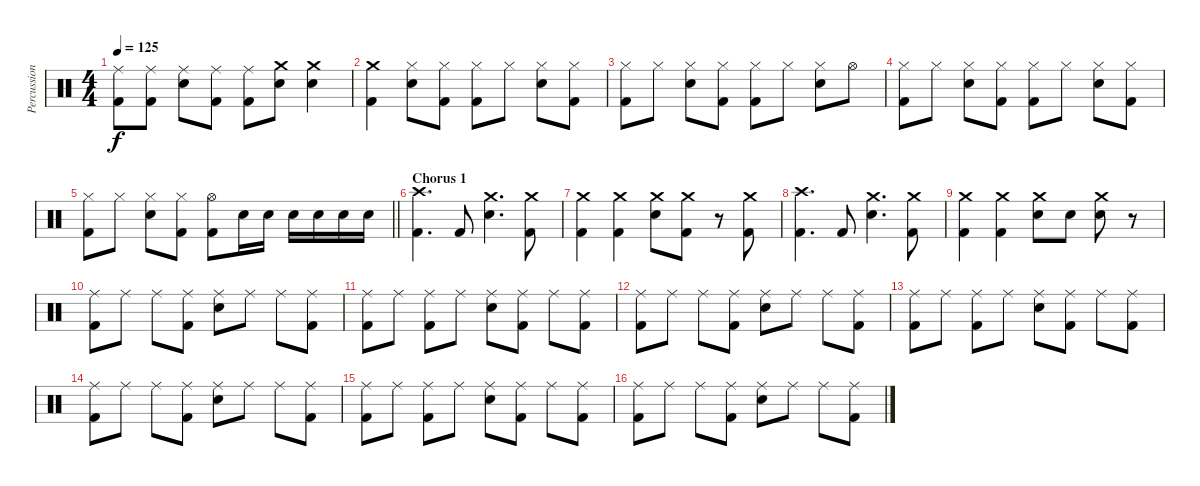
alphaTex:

\track ("Percussion" "Percussion") {instrument percussion}
\staff {score}
\articulation defaults
\ts (4 4)
\tempo 125
\clef neutral
\ks c
("Ride (middle)" "Kick (hit) 2").8{dy f} ("Ride (middle)" "Kick (hit) 2").8 ("Ride (middle)" "Electric Snare (hit)").8 ("Ride (middle)" "Kick (hit) 2").8 ("Ride (middle)" "Kick (hit) 2").8 ("Crash medium (hit)" "Electric Snare (hit)").8 ("Crash medium (hit)" "Electric Snare (hit)").4 |
("Crash medium (hit)" "Kick (hit) 2").4 ("Hi-Hat (closed)" "Electric Snare (hit)").8 ("Hi-Hat (closed)" "Kick (hit) 2").8 ("Hi-Hat (closed)" "Kick (hit) 2").8 "Hi-Hat (closed)".8 ("Hi-Hat (closed)" "Electric Snare (hit)").8 ("Hi-Hat (closed)" "Kick (hit) 2").8 |
("Hi-Hat (closed)" "Kick (hit) 2").8 "Hi-Hat (closed)".8 ("Hi-Hat (closed)" "Electric Snare (hit)").8 ("Hi-Hat (closed)" "Kick (hit) 2").8 ("Hi-Hat (closed)" "Kick (hit) 2").8 "Hi-Hat (closed)".8 ("Hi-Hat (closed)" "Electric Snare (hit)").8 "Hi-Hat (open)".8 |
("Hi-Hat (closed)" "Kick (hit) 2").8 "Hi-Hat (closed)".8 ("Hi-Hat (closed)" "Electric Snare (hit)").8 ("Hi-Hat (closed)" "Kick (hit) 2").8 ("Hi-Hat (closed)" "Kick (hit) 2").8 "Hi-Hat (closed)".8 ("Hi-Hat (closed)" "Electric Snare (hit)").8 ("Hi-Hat (closed)" "Kick (hit) 2").8 |
\barLineRight lightlight
("Hi-Hat (closed)" "Kick (hit) 2").8 "Hi-Hat (closed)".8 ("Hi-Hat (closed)" "Electric Snare (hit)").8 ("Hi-Hat (closed)" "Kick (hit) 2").8 ("Hi-Hat (open)" "Kick (hit) 2").8 "Electric Snare (hit)".16 "Electric Snare (hit)".16 "Electric Snare (hit)".16 "Electric Snare (hit)".16 "Electric Snare (hit)".16 "Electric Snare (hit)".16 |
\section ("" "Chorus 1")
("Crash high (hit)" "Kick (hit) 2").4{d} "Kick (hit) 2".8 ("Crash medium (hit)" "Electric Snare (hit)").4{d} ("Crash medium (hit)" "Kick (hit) 2").8 |
("Crash medium (hit)" "Kick (hit) 2").4 ("Crash medium (hit)" "Kick (hit) 2").4 ("Crash medium (hit)" "Electric Snare (hit)").8 ("Crash medium (hit)" "Kick (hit) 2").8 r.8 ("Crash medium (hit)" "Kick (hit) 2").8 |
("Crash high (hit)" "Kick (hit) 2").4{d} "Kick (hit) 2".8 ("Crash medium (hit)" "Electric Snare (hit)").4{d} ("Crash medium (hit)" "Kick (hit) 2").8 |
("Crash medium (hit)" "Kick (hit) 2").4 ("Crash medium (hit)" "Kick (hit) 2").4 ("Crash medium (hit)" "Electric Snare (hit)").8 "Electric Snare (hit)".8 ("Crash medium (hit)" "Electric Snare (hit)").8 r.8 |
("Ride (middle)" "Kick (hit) 2").8 "Ride (middle)".8 "Ride (middle)".8 ("Ride (middle)" "Kick (hit) 2").8 ("Ride (middle)" "Electric Snare (hit)").8 "Ride (middle)".8 "Ride (middle)".8 ("Ride (middle)" "Kick (hit) 2").8 |
("Ride (middle)" "Kick (hit) 2").8 "Ride (middle)".8 ("Ride (middle)" "Kick (hit) 2").8 "Ride (middle)".8 ("Ride (middle)" "Electric Snare (hit)").8 ("Ride (middle)" "Kick (hit) 2").8 "Ride (middle)".8 ("Ride (middle)" "Kick (hit) 2").8 |
("Ride (middle)" "Kick (hit) 2").8 "Ride (middle)".8 "Ride (middle)".8 ("Ride (middle)" "Kick (hit) 2").8 ("Ride (middle)" "Electric Snare (hit)").8 "Ride (middle)".8 "Ride (middle)".8 ("Ride (middle)" "Kick (hit) 2").8 |
("Ride (middle)" "Kick (hit) 2").8 "Ride (middle)".8 ("Ride (middle)" "Kick (hit) 2").8 "Ride (middle)".8 ("Ride (middle)" "Electric Snare (hit)").8 ("Ride (middle)" "Kick (hit) 2").8 "Ride (middle)".8 ("Ride (middle)" "Kick (hit) 2").8 |
("Ride (middle)" "Kick (hit) 2").8 "Ride (middle)".8 "Ride (middle)".8 ("Ride (middle)" "Kick (hit) 2").8 ("Ride (middle)" "Electric Snare (hit)").8 "Ride (middle)".8 "Ride (middle)".8 ("Ride (middle)" "Kick (hit) 2").8 |
("Ride (middle)" "Kick (hit) 2").8 "Ride (middle)".8 ("Ride (middle)" "Kick (hit) 2").8 "Ride (middle)".8 ("Ride (middle)" "Electric Snare (hit)").8 ("Ride (middle)" "Kick (hit) 2").8 "Ride (middle)".8 ("Ride (middle)" "Kick (hit) 2").8 |
("Ride (middle)" "Kick (hit) 2").8 "Ride (middle)".8 "Ride (middle)".8 ("Ride (middle)" "Kick (hit) 2").8 ("Ride (middle)" "Electric Snare (hit)").8 "Ride (middle)".8 "Ride (middle)".8 ("Ride (middle)" "Kick (hit) 2").8
